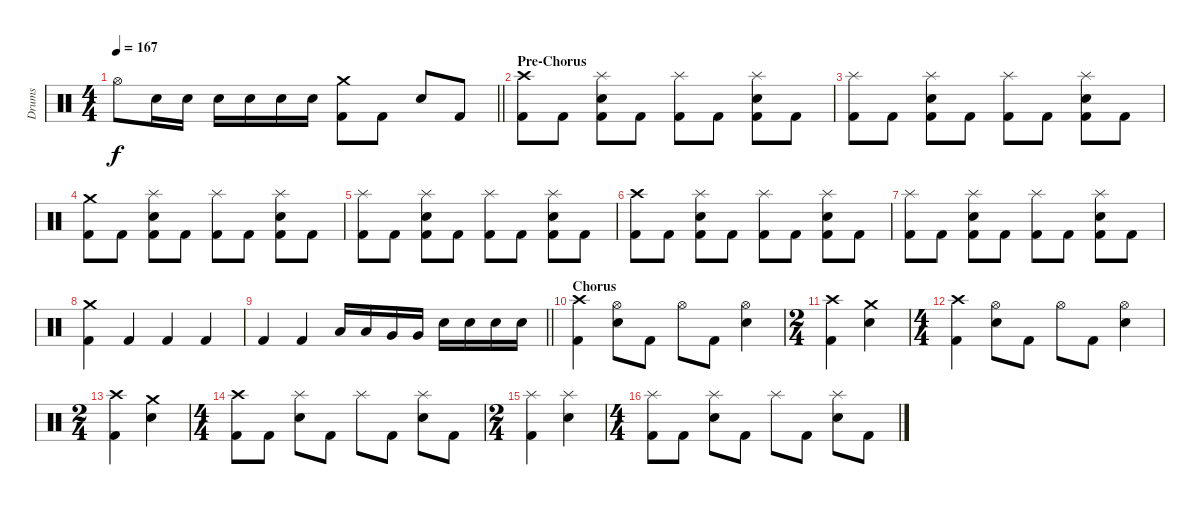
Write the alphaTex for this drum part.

\track ("Drums" "Drums") {instrument percussion}
\staff {score}
\articulation defaults
\ts (4 4)
\tempo 167
\clef neutral
\barLineRight lightlight
\ks c "Hi-Hat (open)".8{dy f} "Snare (hit) 2".16 "Snare (hit) 2".16 "Snare (hit) 2".16 "Snare (hit) 2".16 "Snare (hit) 2".16 "Snare (hit) 2".16
("Crash medium (hit)" "Kick (hit) 2").8 "Kick (hit) 2".8 "Snare (hit) 2".8 "Kick (hit) 2".8 |
\section ("" "Pre-Chorus")
("Crash high (hit)" "Kick (hit) 2").8 "Kick (hit) 2".8 ("Splash (hit)" "Snare (hit) 2" "Kick (hit) 2").8 "Kick (hit) 2".8 ("Splash (hit)" "Kick (hit) 2").8 "Kick (hit) 2".8 ("Splash (hit)" "Snare (hit) 2" "Kick (hit) 2").8 "Kick (hit) 2".8 |
("Splash (hit)" "Kick (hit) 2").8 "Kick (hit) 2".8 ("Splash (hit)" "Snare (hit) 2" "Kick (hit) 2").8 "Kick (hit) 2".8 ("Splash (hit)" "Kick (hit) 2").8 "Kick (hit) 2".8 ("Splash (hit)" "Snare (hit) 2" "Kick (hit) 2").8 "Kick (hit) 2".8 |
("Crash medium (hit)" "Kick (hit) 2").8 "Kick (hit) 2".8 ("Splash (hit)" "Snare (hit) 2" "Kick (hit) 2").8 "Kick (hit) 2".8 ("Splash (hit)" "Kick (hit) 2").8 "Kick (hit) 2".8 ("Splash (hit)" "Snare (hit) 2" "Kick (hit) 2").8 "Kick (hit) 2".8 |
("Splash (hit)" "Kick (hit) 2").8 "Kick (hit) 2".8 ("Splash (hit)" "Snare (hit) 2" "Kick (hit) 2").8 "Kick (hit) 2".8 ("Splash (hit)" "Kick (hit) 2").8 "Kick (hit) 2".8 ("Splash (hit)" "Snare (hit) 2" "Kick (hit) 2").8 "Kick (hit) 2".8 |
("Crash high (hit)" "Kick (hit) 2").8 "Kick (hit) 2".8 ("Splash (hit)" "Snare (hit) 2" "Kick (hit) 2").8 "Kick (hit) 2".8 ("Splash (hit)" "Kick (hit) 2").8 "Kick (hit) 2".8 ("Splash (hit)" "Snare (hit) 2" "Kick (hit) 2").8 "Kick (hit) 2".8 |
("Splash (hit)" "Kick (hit) 2").8 "Kick (hit) 2".8 ("Splash (hit)" "Snare (hit) 2" "Kick (hit) 2").8 "Kick (hit) 2".8 ("Splash (hit)" "Kick (hit) 2").8 "Kick (hit) 2".8 ("Splash (hit)" "Snare (hit) 2" "Kick (hit) 2").8 "Kick (hit) 2".8 |
("Crash medium (hit)" "Kick (hit) 2").4 "Kick (hit) 2".4 "Kick (hit) 2".4 "Kick (hit) 2".4 |
\barLineRight lightlight "Kick (hit) 2".4 "Kick (hit) 2".4 "Low Tom (hit)".16 "Low Tom (hit)".16 "Very Low Tom (hit)".16 "Very Low Tom (hit)".16 "Snare (hit) 2".16 "Snare (hit) 2".16 "Snare (hit) 2".16 "Snare (hit) 2".16
|
\section ("" "Chorus")
("Crash high (hit)" "Kick (hit) 2").4 ("Hi-Hat (open)" "Snare (hit) 2").8 "Kick (hit) 2".8 "Hi-Hat (open)".8 "Kick (hit) 2".8 ("Hi-Hat (open)" "Snare (hit) 2").4 |
\ts (2 4)
("Crash high (hit)" "Kick (hit) 2").4 ("Crash medium (hit)" "Snare (hit) 2").4 |
\ts (4 4)
("Crash high (hit)" "Kick (hit) 2").4 ("Hi-Hat (open)" "Snare (hit) 2").8 "Kick (hit) 2".8 "Hi-Hat (open)".8 "Kick (hit) 2".8 ("Hi-Hat (open)" "Snare (hit) 2").4 |
\ts (2 4)
("Crash high (hit)" "Kick (hit) 2").4 ("Crash medium (hit)" "Snare (hit) 2").4 |
\ts (4 4)
("Crash high (hit)" "Kick (hit) 2").8 "Kick (hit) 2".8 ("Splash (hit)" "Snare (hit) 2").8 "Kick (hit) 2".8 "Splash (hit)".8 "Kick (hit) 2".8 ("Splash (hit)" "Snare (hit) 2").8 "Kick (hit) 2".8 |
\ts (2 4)
("Splash (hit)" "Kick (hit) 2").4 ("Splash (hit)" "Snare (hit) 2").4 |
\ts (4 4)
("Splash (hit)" "Kick (hit) 2").8 "Kick (hit) 2".8 ("Splash (hit)" "Snare (hit) 2").8 "Kick (hit) 2".8 "Splash (hit)".8 "Kick (hit) 2".8 ("Splash (hit)" "Snare (hit) 2").8 "Kick (hit) 2".8
